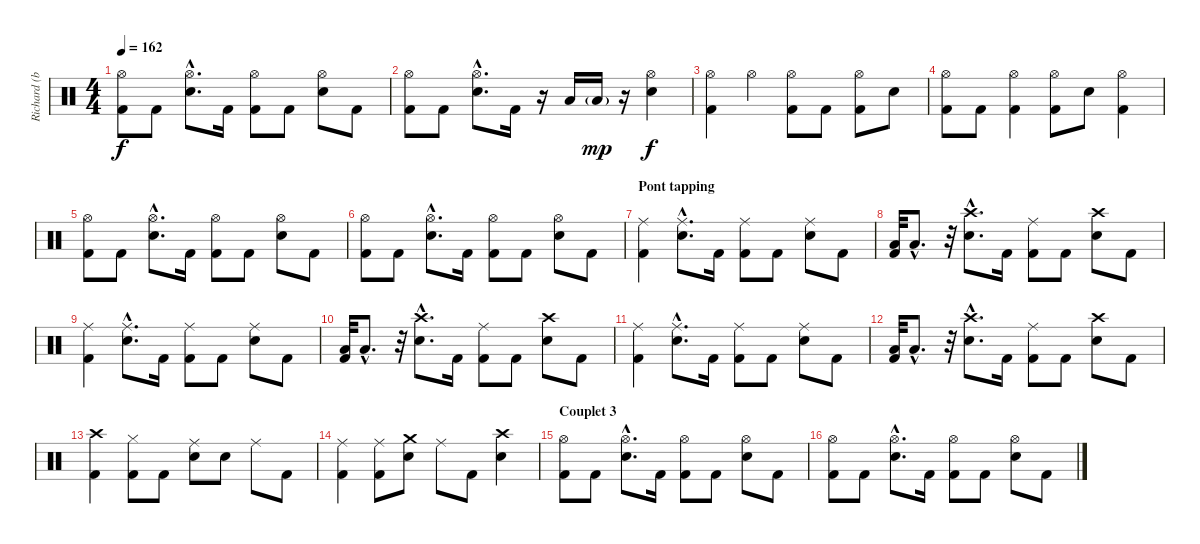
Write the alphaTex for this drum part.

\track ("Richard (batterie)" "Richard (b") {instrument percussion}
\staff {score}
\articulation defaults
\ts (4 4)
\tempo 162
\clef neutral
\ks c
("Hi-Hat (open)" "Kick (hit) 2").8{dy f} "Kick (hit) 2".8 ("Hi-Hat (open)"{hac} "Snare (hit) 2"{hac}).8{d} "Kick (hit) 2".16 ("Hi-Hat (open)" "Kick (hit) 2").8 "Kick (hit) 2".8 ("Hi-Hat (open)" "Snare (hit) 2").8 "Kick (hit) 2".8 |
("Hi-Hat (open)" "Kick (hit) 2").8 "Kick (hit) 2".8 ("Hi-Hat (open)"{hac} "Snare (hit) 2"{hac}).8{d} "Kick (hit) 2".16 r.16 "Low Tom (hit)".16 "Low Tom (hit)"{g}.16{dy mp} r.16 ("Hi-Hat (open)" "Snare (hit) 2").4{dy f} |
("Hi-Hat (open)" "Kick (hit) 2").4 "Hi-Hat (open)".4 ("Hi-Hat (open)" "Kick (hit) 2").8 "Kick (hit) 2".8 ("Hi-Hat (open)" "Kick (hit) 2").8 "Snare (hit) 2".8 |
("Hi-Hat (open)" "Kick (hit) 2").8 "Kick (hit) 2".8 ("Hi-Hat (open)" "Kick (hit) 2").4 ("Hi-Hat (open)" "Kick (hit) 2").8 "Snare (hit) 2".8 ("Hi-Hat (open)" "Kick (hit) 2").4 |
("Hi-Hat (open)" "Kick (hit) 2").8 "Kick (hit) 2".8 ("Hi-Hat (open)"{hac} "Snare (hit) 2"{hac}).8{d} "Kick (hit) 2".16 ("Hi-Hat (open)" "Kick (hit) 2").8 "Kick (hit) 2".8 ("Hi-Hat (open)" "Snare (hit) 2").8 "Kick (hit) 2".8 |
("Hi-Hat (open)" "Kick (hit) 2").8 "Kick (hit) 2".8 ("Hi-Hat (open)"{hac} "Snare (hit) 2"{hac}).8{d} "Kick (hit) 2".16 ("Hi-Hat (open)" "Kick (hit) 2").8 "Kick (hit) 2".8 ("Hi-Hat (open)" "Snare (hit) 2").8 "Kick (hit) 2".8 |
\section ("" "Pont tapping")
("Ride (middle)" "Kick (hit) 2").4 ("Ride (middle)"{hac} "Snare (hit) 2"{hac}).8{d} "Kick (hit) 2".16 ("Ride (middle)" "Kick (hit) 2").8 "Kick (hit) 2".8 ("Ride (middle)" "Snare (hit) 2").8 "Kick (hit) 2".8 |
("Low Tom (hit)" "Kick (hit) 2").32 "Low Tom (hit)"{hac}.8{d} r.32 ("Crash high (hit)"{hac} "Snare (hit) 2"{hac}).8{d} "Kick (hit) 2".16 ("Ride (middle)" "Kick (hit) 2").8 "Kick (hit) 2".8 ("Crash high (hit)" "Snare (hit) 2").8 "Kick (hit) 2".8 |
("Ride (middle)" "Kick (hit) 2").4 ("Ride (middle)"{hac} "Snare (hit) 2"{hac}).8{d} "Kick (hit) 2".16 ("Ride (middle)" "Kick (hit) 2").8 "Kick (hit) 2".8 ("Ride (middle)" "Snare (hit) 2").8 "Kick (hit) 2".8 |
("Low Tom (hit)" "Kick (hit) 2").32 "Low Tom (hit)"{hac}.8{d} r.32 ("Crash high (hit)"{hac} "Snare (hit) 2"{hac}).8{d} "Kick (hit) 2".16 ("Ride (middle)" "Kick (hit) 2").8 "Kick (hit) 2".8 ("Crash high (hit)" "Snare (hit) 2").8 "Kick (hit) 2".8 |
("Ride (middle)" "Kick (hit) 2").4 ("Ride (middle)"{hac} "Snare (hit) 2"{hac}).8{d} "Kick (hit) 2".16 ("Ride (middle)" "Kick (hit) 2").8 "Kick (hit) 2".8 ("Ride (middle)" "Snare (hit) 2").8 "Kick (hit) 2".8 |
("Low Tom (hit)" "Kick (hit) 2").32 "Low Tom (hit)"{hac}.8{d} r.32 ("Crash high (hit)"{hac} "Snare (hit) 2"{hac}).8{d} "Kick (hit) 2".16 ("Ride (middle)" "Kick (hit) 2").8 "Kick (hit) 2".8 ("Crash high (hit)" "Snare (hit) 2").8 "Kick (hit) 2".8 |
("Crash high (hit)" "Kick (hit) 2").4 ("Hi-Hat (closed)" "Kick (hit) 2").8 "Kick (hit) 2".8 ("Ride (middle)" "Snare (hit) 2").8 "Snare (hit) 2".8 "Ride (middle)".8 "Kick (hit) 2".8 |
("Ride (middle)" "Kick (hit) 2").4 ("Ride (middle)" "Kick (hit) 2").8 ("Crash medium (hit)" "Snare (hit) 2").8 "Ride (middle)".8 "Kick (hit) 2".8 ("Crash high (hit)" "Snare (hit) 2").4 |
\section ("" "Couplet 3")
("Hi-Hat (open)" "Kick (hit) 2").8 "Kick (hit) 2".8 ("Hi-Hat (open)"{hac} "Snare (hit) 2"{hac}).8{d} "Kick (hit) 2".16 ("Hi-Hat (open)" "Kick (hit) 2").8 "Kick (hit) 2".8 ("Hi-Hat (open)" "Snare (hit) 2").8 "Kick (hit) 2".8 |
("Hi-Hat (open)" "Kick (hit) 2").8 "Kick (hit) 2".8 ("Hi-Hat (open)"{hac} "Snare (hit) 2"{hac}).8{d} "Kick (hit) 2".16 ("Hi-Hat (open)" "Kick (hit) 2").8 "Kick (hit) 2".8 ("Hi-Hat (open)" "Snare (hit) 2").8 "Kick (hit) 2".8
